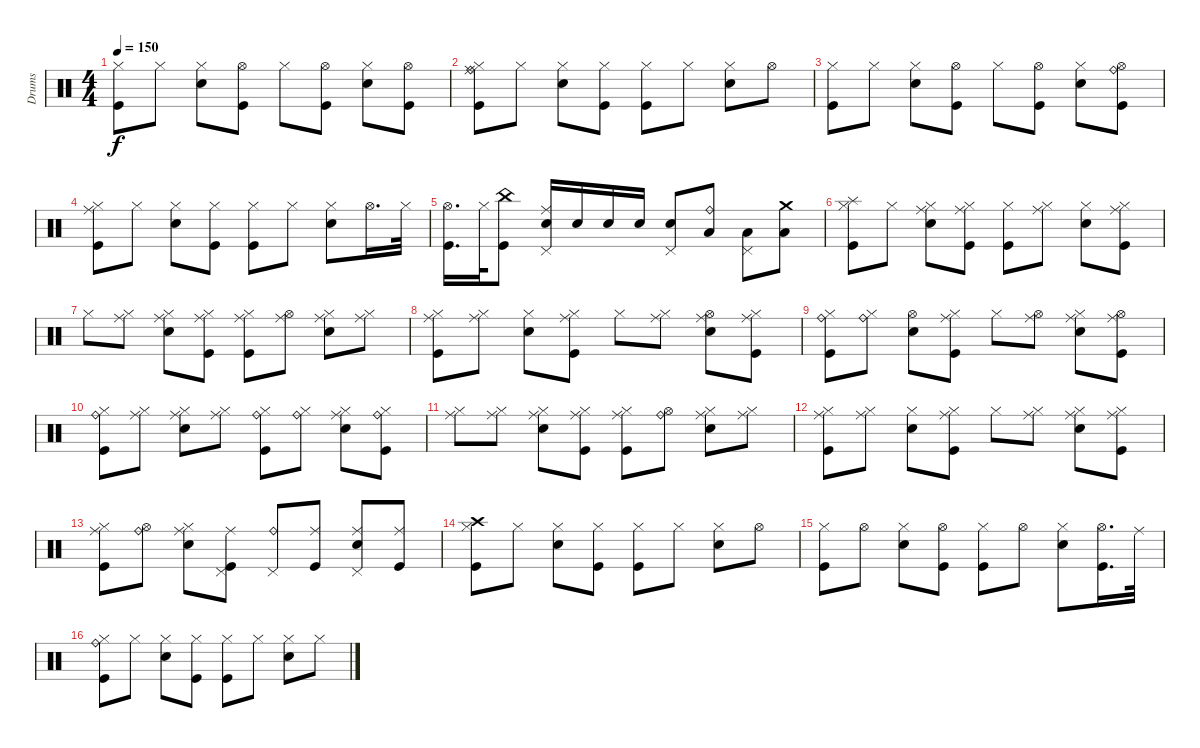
\track ("Drums" "Drums") {instrument percussion}
\staff {score}
\articulation defaults
\ts (4 4)
\tempo 150
\clef neutral
\ks c
("Kick (hit)" "Hi-Hat (closed)").8{dy f} "Hi-Hat (closed)".8 ("Snare (hit) 2" "Hi-Hat (closed)").8 ("Kick (hit)" "Hi-Hat (open)").8 "Hi-Hat (closed)".8 ("Kick (hit)" "Hi-Hat (open)").8 ("Snare (hit) 2" "Hi-Hat (closed)").8 ("Kick (hit)" "Hi-Hat (open)").8 |
("Kick (hit)" "Hi-Hat (closed)" "Ride (middle)" "Ride (bell)").8 "Hi-Hat (closed)".8 ("Snare (hit) 2" "Hi-Hat (closed)").8 ("Kick (hit)" "Hi-Hat (closed)").8 ("Kick (hit)" "Hi-Hat (closed)").8 "Hi-Hat (closed)".8 ("Snare (hit) 2" "Hi-Hat (closed)").8 "Hi-Hat (open)".8 |
("Kick (hit)" "Hi-Hat (closed)").8 "Hi-Hat (closed)".8 ("Snare (hit) 2" "Hi-Hat (closed)").8 ("Kick (hit)" "Hi-Hat (open)").8 "Hi-Hat (closed)".8 ("Kick (hit)" "Hi-Hat (open)").8 ("Snare (hit) 2" "Hi-Hat (closed)").8 ("Ride (bell)" "Kick (hit)" "Hi-Hat (open)").8 |
("Hi-Hat (closed)" "Ride (middle)" "Kick (hit)").8 "Hi-Hat (closed)".8 ("Snare (hit) 2" "Hi-Hat (closed)").8 ("Kick (hit)" "Hi-Hat (closed)").8 ("Kick (hit)" "Hi-Hat (closed)").8 "Hi-Hat (closed)".8 ("Snare (hit) 2" "Hi-Hat (closed)").8 "Hi-Hat (open)".16{d} "Hi-Hat (closed)".32 |
("Kick (hit)" "Hi-Hat (open)").16{d} "Hi-Hat (closed)".32 ("Kick (hit)" "China (hit)").8 ("Snare (hit) 2" "Pedal Hi-Hat (hit)" "Ride (middle)").16 "Snare (hit) 2".16 "Snare (hit) 2".16 "Snare (hit) 2".16 ("Snare (hit) 2" "Pedal Hi-Hat (hit)").8 ("Low Tom (hit)" "Ride (bell)").8 ("Low Floor Tom (hit)" "Pedal Hi-Hat (hit)").8 ("Low Floor Tom (hit)" "Crash medium (hit)").8 |
("Kick (hit)" "Hi-Hat (closed)" "Splash (hit)").8 "Hi-Hat (closed)".8 ("Snare (hit) 2" "Hi-Hat (closed)" "Ride (middle)").8 ("Kick (hit)" "Hi-Hat (closed)" "Ride (middle)").8 ("Kick (hit)" "Hi-Hat (closed)").8 ("Hi-Hat (closed)" "Ride (middle)").8 ("Snare (hit) 2" "Hi-Hat (closed)").8 ("Kick (hit)" "Hi-Hat (closed)" "Ride (middle)").8 |
"Hi-Hat (closed)".8 ("Hi-Hat (closed)" "Ride (middle)").8 ("Snare (hit) 2" "Hi-Hat (closed)" "Ride (middle)").8 ("Kick (hit)" "Hi-Hat (closed)" "Ride (middle)").8 ("Kick (hit)" "Hi-Hat (closed)" "Ride (middle)").8 ("Hi-Hat (open)" "Ride (middle)").8 ("Snare (hit) 2" "Hi-Hat (closed)" "Ride (middle)").8 ("Hi-Hat (closed)" "Ride (middle)").8 |
("Kick (hit)" "Hi-Hat (closed)" "Ride (middle)").8 ("Hi-Hat (closed)" "Ride (middle)").8 ("Snare (hit) 2" "Hi-Hat (closed)").8 ("Kick (hit)" "Hi-Hat (closed)" "Ride (middle)").8 "Hi-Hat (closed)".8 ("Hi-Hat (closed)" "Ride (middle)").8 ("Snare (hit) 2" "Hi-Hat (open)" "Ride (middle)").8 ("Kick (hit)" "Hi-Hat (closed)" "Ride (middle)").8 |
("Kick (hit)" "Hi-Hat (closed)" "Ride (bell)").8 ("Hi-Hat (closed)" "Ride (bell)").8 ("Snare (hit) 2" "Hi-Hat (open)").8 ("Ride (middle)" "Kick (hit)" "Hi-Hat (closed)").8 "Hi-Hat (closed)".8 ("Hi-Hat (open)" "Ride (middle)").8 ("Snare (hit) 2" "Hi-Hat (closed)" "Ride (middle)").8 ("Kick (hit)" "Hi-Hat (open)" "Ride (middle)").8 |
("Ride (bell)" "Kick (hit)" "Hi-Hat (closed)").8 ("Hi-Hat (closed)" "Ride (middle)").8 ("Snare (hit) 2" "Hi-Hat (closed)" "Ride (middle)").8 ("Hi-Hat (closed)" "Ride (middle)").8 ("Hi-Hat (closed)" "Ride (bell)" "Kick (hit)").8 ("Hi-Hat (closed)" "Ride (bell)").8 ("Snare (hit) 2" "Hi-Hat (closed)" "Ride (middle)").8 ("Kick (hit)" "Hi-Hat (closed)" "Ride (bell)").8 |
("Hi-Hat (closed)" "Ride (middle)").8 ("Hi-Hat (closed)" "Ride (middle)").8 ("Snare (hit) 2" "Hi-Hat (closed)" "Ride (middle)").8 ("Ride (middle)" "Kick (hit)" "Hi-Hat (closed)").8 ("Kick (hit)" "Hi-Hat (closed)" "Ride (middle)").8 ("Hi-Hat (open)" "Ride (bell)").8 ("Ride (middle)" "Snare (hit) 2" "Hi-Hat (closed)").8 ("Hi-Hat (closed)" "Ride (middle)").8 |
("Kick (hit)" "Hi-Hat (closed)" "Ride (middle)").8 ("Hi-Hat (closed)" "Ride (middle)").8 ("Snare (hit) 2" "Hi-Hat (closed)").8 ("Kick (hit)" "Hi-Hat (closed)" "Ride (middle)").8 "Hi-Hat (closed)".8 ("Hi-Hat (closed)" "Ride (middle)").8 ("Snare (hit) 2" "Hi-Hat (closed)" "Ride (middle)").8 ("Hi-Hat (closed)" "Ride (middle)" "Kick (hit)").8 |
("Kick (hit)" "Hi-Hat (closed)" "Ride (middle)").8 ("Hi-Hat (open)" "Ride (bell)").8 ("Hi-Hat (closed)" "Ride (middle)" "Snare (hit) 2").8 ("Kick (hit)" "Pedal Hi-Hat (hit)" "Ride (middle)").8 ("Pedal Hi-Hat (hit)" "Ride (bell)").8 ("Kick (hit)" "Ride (middle)").8 ("Snare (hit) 2" "Pedal Hi-Hat (hit)" "Ride (middle)").8 ("Kick (hit)" "Ride (middle)").8 |
("Kick (hit)" "Hi-Hat (closed)" "Crash high (hit)").8 "Hi-Hat (closed)".8 ("Snare (hit) 2" "Hi-Hat (closed)").8 ("Kick (hit)" "Hi-Hat (closed)").8 ("Kick (hit)" "Hi-Hat (closed)").8 "Hi-Hat (closed)".8 ("Snare (hit) 2" "Hi-Hat (closed)").8 "Hi-Hat (open)".8 |
("Kick (hit)" "Hi-Hat (closed)").8 "Hi-Hat (open)".8 ("Snare (hit) 2" "Hi-Hat (closed)").8 ("Kick (hit)" "Hi-Hat (open)").8 ("Kick (hit)" "Hi-Hat (closed)").8 "Hi-Hat (open)".8 ("Snare (hit) 2" "Hi-Hat (closed)").8 ("Kick (hit)" "Hi-Hat (open)").16{d} "Ride (middle)".32 |
("Kick (hit)" "Hi-Hat (closed)" "Ride (bell)").8 "Hi-Hat (closed)".8 ("Snare (hit) 2" "Hi-Hat (closed)").8 ("Kick (hit)" "Hi-Hat (closed)").8 ("Kick (hit)" "Hi-Hat (closed)").8 "Hi-Hat (closed)".8 ("Snare (hit) 2" "Hi-Hat (closed)").8 "Hi-Hat (closed)".8
